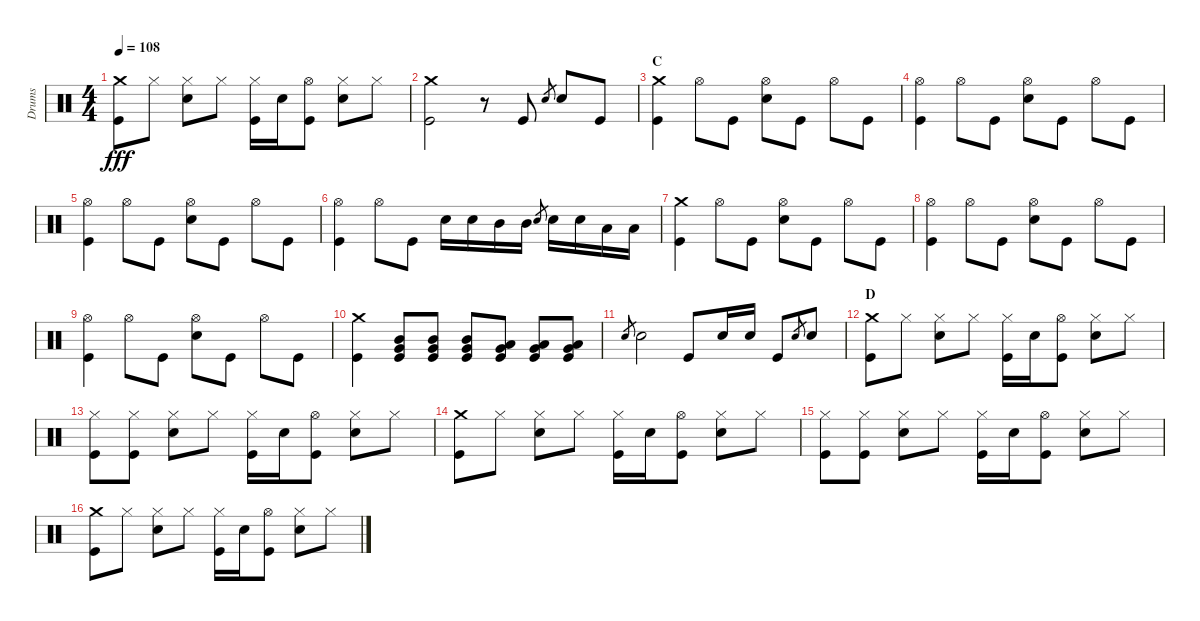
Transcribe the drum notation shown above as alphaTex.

\track ("Drums" "Drums") {instrument percussion}
\staff {score}
\articulation defaults
\ts (4 4)
\tempo 108
\clef neutral
\ks c
("Crash medium (hit)" "Kick (hit)").8{dy fff} "Hi-Hat (closed)".8 ("Hi-Hat (closed)" "Snare (hit) 2").8 "Hi-Hat (closed)".8 ("Hi-Hat (closed)" "Kick (hit)").16 "Snare (hit) 2".16 ("Hi-Hat (open)" "Kick (hit)").8 ("Hi-Hat (closed)" "Snare (hit) 2").8 "Hi-Hat (closed)".8 |
("Crash medium (hit)" "Kick (hit)").2 r.8 "Kick (hit)".8 "Snare (hit) 2".8{gr} "Snare (hit) 2".8 "Kick (hit)".8 |
\section ("" "C")
("Crash medium (hit)" "Kick (hit)").4 "Hi-Hat (open)".8 "Kick (hit)".8 ("Hi-Hat (open)" "Snare (hit) 2").8 "Kick (hit)".8 "Hi-Hat (open)".8 "Kick (hit)".8 |
("Hi-Hat (open)" "Kick (hit)").4 "Hi-Hat (open)".8 "Kick (hit)".8 ("Hi-Hat (open)" "Snare (hit) 2").8 "Kick (hit)".8 "Hi-Hat (open)".8 "Kick (hit)".8 |
("Hi-Hat (open)" "Kick (hit)").4 "Hi-Hat (open)".8 "Kick (hit)".8 ("Hi-Hat (open)" "Snare (hit) 2").8 "Kick (hit)".8 "Hi-Hat (open)".8 "Kick (hit)".8 |
("Hi-Hat (open)" "Kick (hit)").4 "Hi-Hat (open)".8 "Kick (hit)".8 "Snare (hit) 2".16 "Snare (hit) 2".16 "Mid Tom (hit)".16 "Mid Tom (hit)".16 "Snare (hit) 2".8{gr} "Snare (hit) 2".16 "Snare (hit) 2".16 "Low Tom (hit)".16 "Low Tom (hit)".16 |
("Crash medium (hit)" "Kick (hit)").4 "Hi-Hat (open)".8 "Kick (hit)".8 ("Hi-Hat (open)" "Snare (hit) 2").8 "Kick (hit)".8 "Hi-Hat (open)".8 "Kick (hit)".8 |
("Hi-Hat (open)" "Kick (hit)").4 "Hi-Hat (open)".8 "Kick (hit)".8 ("Hi-Hat (open)" "Snare (hit) 2").8 "Kick (hit)".8 "Hi-Hat (open)".8 "Kick (hit)".8 |
("Hi-Hat (open)" "Kick (hit)").4 "Hi-Hat (open)".8 "Kick (hit)".8 ("Hi-Hat (open)" "Snare (hit) 2").8 "Kick (hit)".8 "Hi-Hat (open)".8 "Kick (hit)".8 |
("Crash medium (hit)" "Kick (hit)").4 ("Mid Tom (hit)" "Very Low Tom (hit)" "Kick (hit)").8 ("Mid Tom (hit)" "Very Low Tom (hit)" "Kick (hit)").8 ("Mid Tom (hit)" "Very Low Tom (hit)" "Kick (hit)").8 ("Low Tom (hit)" "Very Low Tom (hit)" "Kick (hit)").8 ("Low Tom (hit)" "Very Low Tom (hit)" "Kick (hit)").8 ("Low Tom (hit)" "Very Low Tom (hit)" "Kick (hit)").8 |
"Snare (hit) 2".8{gr} "Snare (hit) 2".2 "Kick (hit)".8 "Snare (hit) 2".16 "Snare (hit) 2".16 "Kick (hit)".8 "Snare (hit) 2".8{gr} "Snare (hit) 2".8 |
\section ("" "D")
("Crash medium (hit)" "Kick (hit)").8 "Hi-Hat (closed)".8 ("Hi-Hat (closed)" "Snare (hit) 2").8 "Hi-Hat (closed)".8 ("Hi-Hat (closed)" "Kick (hit)").16 "Snare (hit) 2".16 ("Hi-Hat (open)" "Kick (hit)").8 ("Hi-Hat (closed)" "Snare (hit) 2").8 "Hi-Hat (closed)".8 |
("Hi-Hat (closed)" "Kick (hit)").8 ("Hi-Hat (closed)" "Kick (hit)").8 ("Hi-Hat (closed)" "Snare (hit) 2").8 "Hi-Hat (closed)".8 ("Hi-Hat (closed)" "Kick (hit)").16 "Snare (hit) 2".16 ("Hi-Hat (open)" "Kick (hit)").8 ("Hi-Hat (closed)" "Snare (hit) 2").8 "Hi-Hat (closed)".8 |
("Crash medium (hit)" "Kick (hit)").8 "Hi-Hat (closed)".8 ("Hi-Hat (closed)" "Snare (hit) 2").8 "Hi-Hat (closed)".8 ("Hi-Hat (closed)" "Kick (hit)").16 "Snare (hit) 2".16 ("Hi-Hat (open)" "Kick (hit)").8 ("Hi-Hat (closed)" "Snare (hit) 2").8 "Hi-Hat (closed)".8 |
("Hi-Hat (closed)" "Kick (hit)").8 ("Hi-Hat (closed)" "Kick (hit)").8 ("Hi-Hat (closed)" "Snare (hit) 2").8 "Hi-Hat (closed)".8 ("Hi-Hat (closed)" "Kick (hit)").16 "Snare (hit) 2".16 ("Hi-Hat (open)" "Kick (hit)").8 ("Hi-Hat (closed)" "Snare (hit) 2").8 "Hi-Hat (closed)".8 |
("Crash medium (hit)" "Kick (hit)").8 "Hi-Hat (closed)".8 ("Hi-Hat (closed)" "Snare (hit) 2").8 "Hi-Hat (closed)".8 ("Hi-Hat (closed)" "Kick (hit)").16 "Snare (hit) 2".16 ("Hi-Hat (open)" "Kick (hit)").8 ("Hi-Hat (closed)" "Snare (hit) 2").8 "Hi-Hat (closed)".8
